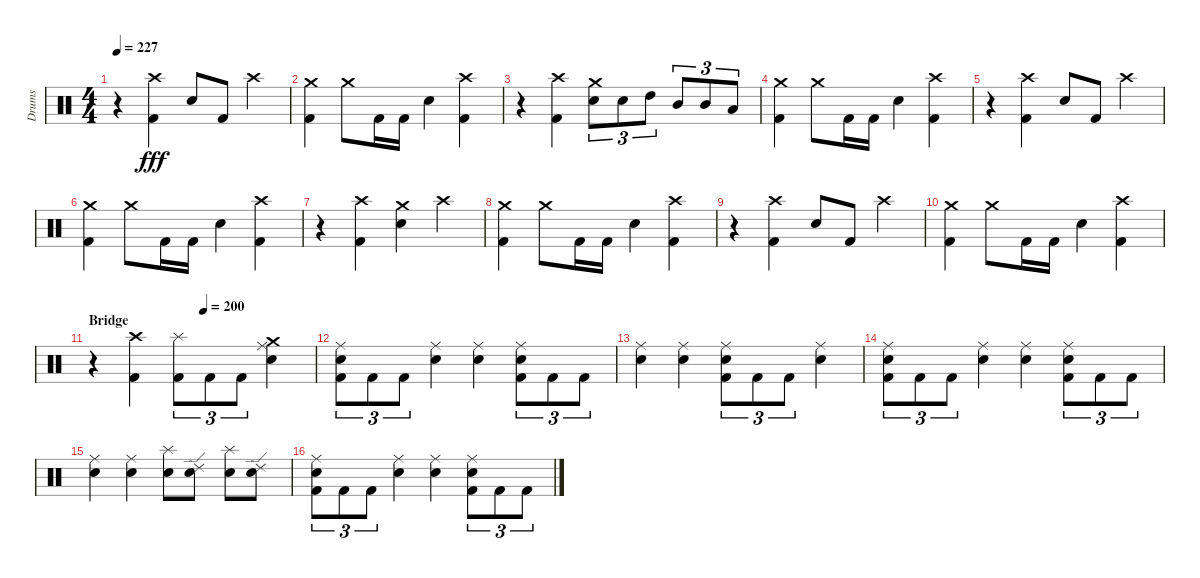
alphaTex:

\track ("Drums" "Drums") {instrument percussion}
\staff {score}
\articulation defaults
\ts (4 4)
\tempo 227
\clef neutral
\ks c
r.4{dy fff} ("Kick (hit) 2" "Crash high (hit)").4 "Electric Snare (hit)".8 "Kick (hit) 2".8 "Crash high (hit)".4 |
("Kick (hit) 2" "Crash medium (hit)").4 "Crash medium (hit)".8 "Kick (hit) 2".16 "Kick (hit) 2".16 "Electric Snare (hit)".4 ("Kick (hit) 2" "Crash high (hit)").4 |
r.4 ("Kick (hit) 2" "Crash high (hit)").4 ("Electric Snare (hit)" "Crash medium (hit)").8{tu (3 2)} "Electric Snare (hit)".8{tu (3 2)} "High Tom (hit)".8{tu (3 2)} "Mid Tom (hit)".8{tu (3 2)} "Mid Tom (hit)".8{tu (3 2)} "Low Tom (hit)".8{tu (3 2)} |
("Kick (hit) 2" "Crash medium (hit)").4 "Crash medium (hit)".8 "Kick (hit) 2".16 "Kick (hit) 2".16 "Electric Snare (hit)".4 ("Kick (hit) 2" "Crash high (hit)").4 |
r.4 ("Kick (hit) 2" "Crash high (hit)").4 "Electric Snare (hit)".8 "Kick (hit) 2".8 "Crash high (hit)".4 |
("Kick (hit) 2" "Crash medium (hit)").4 "Crash medium (hit)".8 "Kick (hit) 2".16 "Kick (hit) 2".16 "Electric Snare (hit)".4 ("Kick (hit) 2" "Crash high (hit)").4 |
r.4 ("Kick (hit) 2" "Crash high (hit)").4 ("Electric Snare (hit)" "Crash medium (hit)").4 "Crash high (hit)".4 |
("Kick (hit) 2" "Crash medium (hit)").4 "Crash medium (hit)".8 "Kick (hit) 2".16 "Kick (hit) 2".16 "Electric Snare (hit)".4 ("Kick (hit) 2" "Crash high (hit)").4 |
r.4 ("Kick (hit) 2" "Crash high (hit)").4 "Electric Snare (hit)".8 "Kick (hit) 2".8 "Crash high (hit)".4 |
("Kick (hit) 2" "Crash medium (hit)").4 "Crash medium (hit)".8 "Kick (hit) 2".16 "Kick (hit) 2".16 "Electric Snare (hit)".4 ("Kick (hit) 2" "Crash high (hit)").4 |
\section ("" "Bridge")
\tempo (200 0.5)
r.4 ("Kick (hit) 2" "Crash high (hit)").4 ("Kick (hit) 2" "Splash (hit)").8{tu (3 2)} "Kick (hit) 2".8{tu (3 2)} "Kick (hit) 2".8{tu (3 2)} ("Electric Snare (hit)" "Ride (middle)" "Crash medium (hit)").4 |
("Kick (hit) 2" "Electric Snare (hit)" "Ride (middle)").8{tu (3 2)} "Kick (hit) 2".8{tu (3 2)} "Kick (hit) 2".8{tu (3 2)} ("Electric Snare (hit)" "Ride (middle)").4 ("Electric Snare (hit)" "Ride (middle)").4 ("Kick (hit) 2" "Electric Snare (hit)" "Ride (middle)").8{tu (3 2)} "Kick (hit) 2".8{tu (3 2)} "Kick (hit) 2".8{tu (3 2)} |
("Electric Snare (hit)" "Ride (middle)").4 ("Electric Snare (hit)" "Ride (middle)").4 ("Kick (hit) 2" "Electric Snare (hit)" "Ride (middle)").8{tu (3 2)} "Kick (hit) 2".8{tu (3 2)} "Kick (hit) 2".8{tu (3 2)} ("Electric Snare (hit)" "Ride (middle)").4 |
("Kick (hit) 2" "Electric Snare (hit)" "Ride (middle)").8{tu (3 2)} "Kick (hit) 2".8{tu (3 2)} "Kick (hit) 2".8{tu (3 2)} ("Electric Snare (hit)" "Ride (middle)").4 ("Electric Snare (hit)" "Ride (middle)").4 ("Kick (hit) 2" "Electric Snare (hit)" "Ride (middle)").8{tu (3 2)} "Kick (hit) 2".8{tu (3 2)} "Kick (hit) 2".8{tu (3 2)} |
("Electric Snare (hit)" "Ride (middle)").4 ("Electric Snare (hit)" "Ride (middle)").4 ("Electric Snare (hit)" "Splash (hit)").8 ("Electric Snare (hit)" "Ride (edge) 2").8 ("Electric Snare (hit)" "Splash (hit)").8 ("Electric Snare (hit)" "Ride (edge) 2").8 |
("Kick (hit) 2" "Electric Snare (hit)" "Ride (middle)").8{tu (3 2)} "Kick (hit) 2".8{tu (3 2)} "Kick (hit) 2".8{tu (3 2)} ("Electric Snare (hit)" "Ride (middle)").4 ("Electric Snare (hit)" "Ride (middle)").4 ("Kick (hit) 2" "Electric Snare (hit)" "Ride (middle)").8{tu (3 2)} "Kick (hit) 2".8{tu (3 2)} "Kick (hit) 2".8{tu (3 2)}
